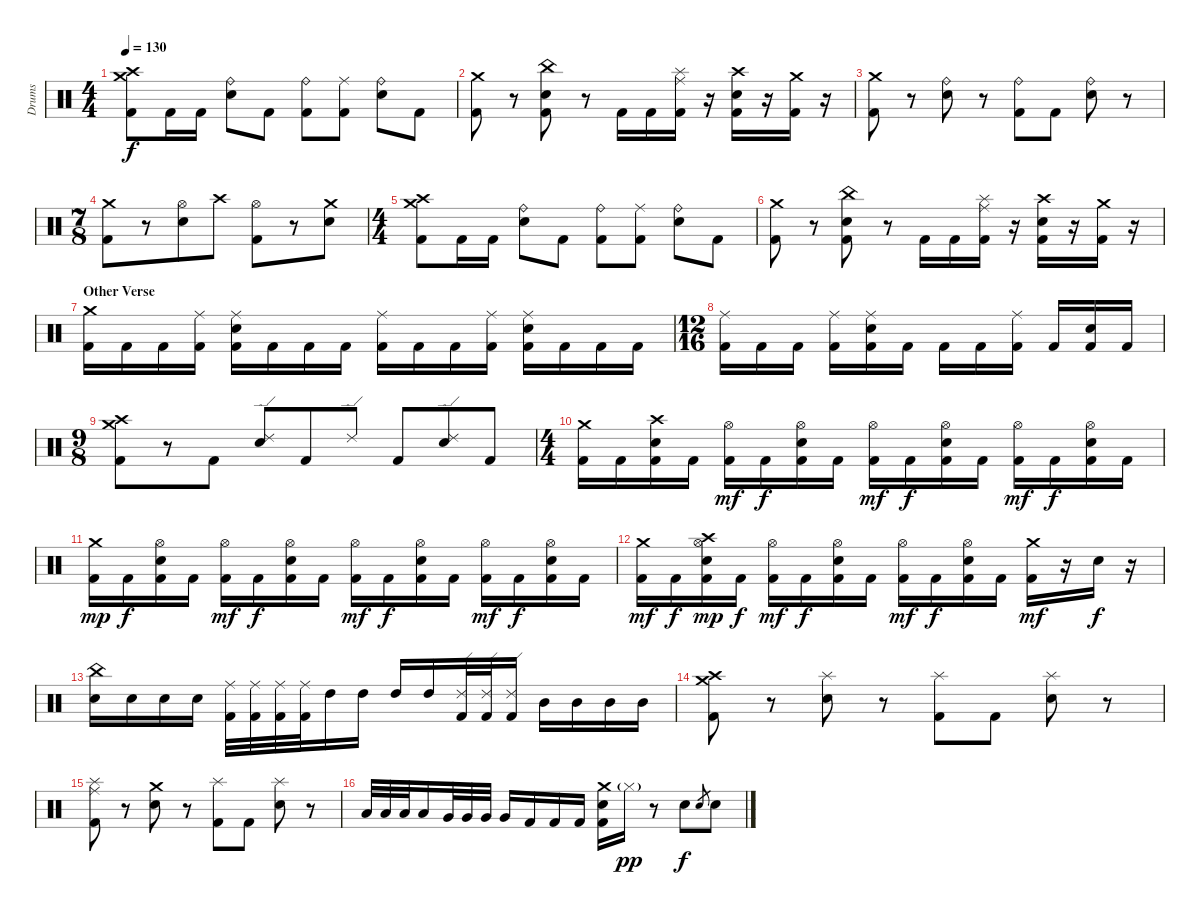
\track ("Drums" "Drums") {instrument percussion}
\staff {score}
\articulation defaults
\ts (4 4)
\tempo 130
\clef neutral
\ks c
("Crash medium (hit)" "Crash high (hit)" "Kick (hit) 2").8{dy f} "Kick (hit) 2".16 "Kick (hit) 2".16 ("Ride (bell)" "Electric Snare (hit)").8 "Kick (hit) 2".8 ("Ride (bell)" "Kick (hit) 2").8 ("Ride (middle)" "Kick (hit) 2").8 ("Ride (bell)" "Electric Snare (hit)").8 "Kick (hit) 2".8 |
("Crash medium (hit)" "Kick (hit) 2").8 r.8 ("China (hit)" "Electric Snare (hit)" "Kick (hit) 2").8 r.8 "Kick (hit) 2".16 "Kick (hit) 2".16 ("Splash (hit)" "Ride (middle)" "Kick (hit) 2").16 r.16 ("Crash high (hit)" "Electric Snare (hit)" "Kick (hit) 2").16 r.16 ("Crash medium (hit)" "Kick (hit) 2").16 r.16 |
("Crash medium (hit)" "Kick (hit) 2").8 r.8 ("Ride (bell)" "Electric Snare (hit)").8 r.8 ("Ride (bell)" "Kick (hit) 2").8 "Kick (hit) 2".8 ("Ride (bell)" "Electric Snare (hit)").8 r.8 |
\ts (7 8)
("Crash medium (hit)" "Kick (hit) 2").8 r.8 ("Hi-Hat (open)" "Electric Snare (hit)").8 "Crash high (hit)".8 ("Hi-Hat (open)" "Kick (hit) 2").8 r.8 ("Crash medium (hit)" "Electric Snare (hit)").8 |
\ts (4 4)
("Crash medium (hit)" "Crash high (hit)" "Kick (hit) 2").8 "Kick (hit) 2".16 "Kick (hit) 2".16 ("Ride (bell)" "Electric Snare (hit)").8 "Kick (hit) 2".8 ("Ride (bell)" "Kick (hit) 2").8 ("Ride (middle)" "Kick (hit) 2").8 ("Ride (bell)" "Electric Snare (hit)").8 "Kick (hit) 2".8 |
("Crash medium (hit)" "Kick (hit) 2").8 r.8 ("China (hit)" "Electric Snare (hit)" "Kick (hit) 2").8 r.8 "Kick (hit) 2".16 "Kick (hit) 2".16 ("Splash (hit)" "Ride (middle)" "Kick (hit) 2").16 r.16 ("Crash high (hit)" "Electric Snare (hit)" "Kick (hit) 2").16 r.16 ("Crash medium (hit)" "Kick (hit) 2").16 r.16 |
\section ("" "Other Verse")
("Crash medium (hit)" "Kick (hit) 2").16 "Kick (hit) 2".16 "Kick (hit) 2".16 ("Ride (middle)" "Kick (hit) 2").16 ("Ride (middle)" "Electric Snare (hit)" "Kick (hit) 2").16 "Kick (hit) 2".16 "Kick (hit) 2".16 "Kick (hit) 2".16 ("Ride (middle)" "Kick (hit) 2").16 "Kick (hit) 2".16 "Kick (hit) 2".16 ("Ride (middle)" "Kick (hit) 2").16 ("Ride (middle)" "Electric Snare (hit)" "Kick (hit) 2").16 "Kick (hit) 2".16 "Kick (hit) 2".16 "Kick (hit) 2".16 |
\ts (12 16)
("Ride (middle)" "Kick (hit) 2").16 "Kick (hit) 2".16 "Kick (hit) 2".16 ("Ride (middle)" "Kick (hit) 2").16 ("Ride (middle)" "Electric Snare (hit)" "Kick (hit) 2").16 "Kick (hit) 2".16 "Kick (hit) 2".16 "Kick (hit) 2".16 ("Ride (middle)" "Kick (hit) 2").16 "Kick (hit) 2".16 ("Electric Snare (hit)" "Kick (hit) 2").16 "Kick (hit) 2".16 |
\ts (9 8)
("Crash high (hit)" "Crash medium (hit)" "Kick (hit) 2").8 r.8 "Kick (hit) 2".8 ("Ride (edge) 2" "Electric Snare (hit)").8 "Kick (hit) 2".8 "Ride (edge) 2".8 "Kick (hit) 2".8 ("Ride (edge) 2" "Electric Snare (hit)").8 "Kick (hit) 2".8 |
\ts (4 4)
("Crash medium (hit)" "Kick (hit) 2").16 "Kick (hit) 2".16 ("Crash high (hit)" "Electric Snare (hit)" "Kick (hit) 2").16 "Kick (hit) 2".16 ("Hi-Hat (open)" "Kick (hit) 2").16{dy mf} "Kick (hit) 2".16{dy f} ("Hi-Hat (open)" "Electric Snare (hit)" "Kick (hit) 2").16 "Kick (hit) 2".16 ("Hi-Hat (open)" "Kick (hit) 2").16{dy mf} "Kick (hit) 2".16{dy f} ("Hi-Hat (open)" "Electric Snare (hit)" "Kick (hit) 2").16 "Kick (hit) 2".16 ("Hi-Hat (open)" "Kick (hit) 2").16{dy mf} "Kick (hit) 2".16{dy f} ("Hi-Hat (open)" "Electric Snare (hit)" "Kick (hit) 2").16 "Kick (hit) 2".16 |
("Crash medium (hit)" "Kick (hit) 2").16{dy mp} "Kick (hit) 2".16{dy f} ("Hi-Hat (open)" "Electric Snare (hit)" "Kick (hit) 2").16 "Kick (hit) 2".16 ("Hi-Hat (open)" "Kick (hit) 2").16{dy mf} "Kick (hit) 2".16{dy f} ("Hi-Hat (open)" "Electric Snare (hit)" "Kick (hit) 2").16 "Kick (hit) 2".16 ("Hi-Hat (open)" "Kick (hit) 2").16{dy mf} "Kick (hit) 2".16{dy f} ("Hi-Hat (open)" "Electric Snare (hit)" "Kick (hit) 2").16 "Kick (hit) 2".16 ("Hi-Hat (open)" "Kick (hit) 2").16{dy mf} "Kick (hit) 2".16{dy f} ("Hi-Hat (open)" "Electric Snare (hit)" "Kick (hit) 2").16 "Kick (hit) 2".16 |
("Crash medium (hit)" "Kick (hit) 2").16{dy mf} "Kick (hit) 2".16{dy f} ("Crash high (hit)" "Hi-Hat (open)" "Electric Snare (hit)" "Kick (hit) 2").16{dy mp} "Kick (hit) 2".16{dy f} ("Hi-Hat (open)" "Kick (hit) 2").16{dy mf} "Kick (hit) 2".16{dy f} ("Hi-Hat (open)" "Electric Snare (hit)" "Kick (hit) 2").16 "Kick (hit) 2".16 ("Hi-Hat (open)" "Kick (hit) 2").16{dy mf} "Kick (hit) 2".16{dy f} ("Hi-Hat (open)" "Electric Snare (hit)" "Kick (hit) 2").16 "Kick (hit) 2".16 ("Crash medium (hit)" "Kick (hit) 2").16{dy mf} r.16 "Electric Snare (hit)".16{dy f} r.16 |
("China (hit)" "Electric Snare (hit)").16 "Electric Snare (hit)".16 "Electric Snare (hit)".16 "Electric Snare (hit)".16 ("Ride (middle)" "Kick (hit) 2").32 ("Ride (middle)" "Kick (hit) 2").32 ("Ride (middle)" "Kick (hit) 2").32 ("Ride (middle)" "Kick (hit) 2").32 "High Tom (hit)".16 "High Tom (hit)".16 "High Tom (hit)".16 "High Tom (hit)".16 ("Ride (edge) 2" "Kick (hit) 2").32 ("Ride (edge) 2" "Kick (hit) 2").32 ("Ride (edge) 2" "Kick (hit) 2").16 "Mid Tom (hit)".16 "Mid Tom (hit)".16 "Mid Tom (hit)".16 "Mid Tom (hit)".16 |
("Crash medium (hit)" "Crash high (hit)" "Kick (hit) 2").8 r.8 ("Splash (hit)" "Electric Snare (hit)").8 r.8 ("Splash (hit)" "Kick (hit) 2").8 "Kick (hit) 2".8 ("Splash (hit)" "Electric Snare (hit)").8 r.8 |
("Ride (middle)" "Splash (hit)" "Kick (hit) 2").8 r.8 ("Crash medium (hit)" "Electric Snare (hit)").8 r.8 ("Splash (hit)" "Kick (hit) 2").8 "Kick (hit) 2".8 ("Splash (hit)" "Electric Snare (hit)").8 r.8 |
"Low Tom (hit)".32 "Low Tom (hit)".32 "Low Tom (hit)".32 "Low Tom (hit)".16 "Very Low Tom (hit)".32 "Very Low Tom (hit)".32 "Very Low Tom (hit)".32 "Very Low Tom (hit)".16 "Kick (hit) 2".16 "Kick (hit) 2".16 "Kick (hit) 2".16 ("Crash medium (hit)" "Electric Snare (hit)" "Kick (hit) 2").16 "Hi-Hat (closed)"{g}.16{dy pp} r.8 "Electric Snare (hit)".8{dy f} "Electric Snare (hit)".8{gr} "Electric Snare (hit)".8
